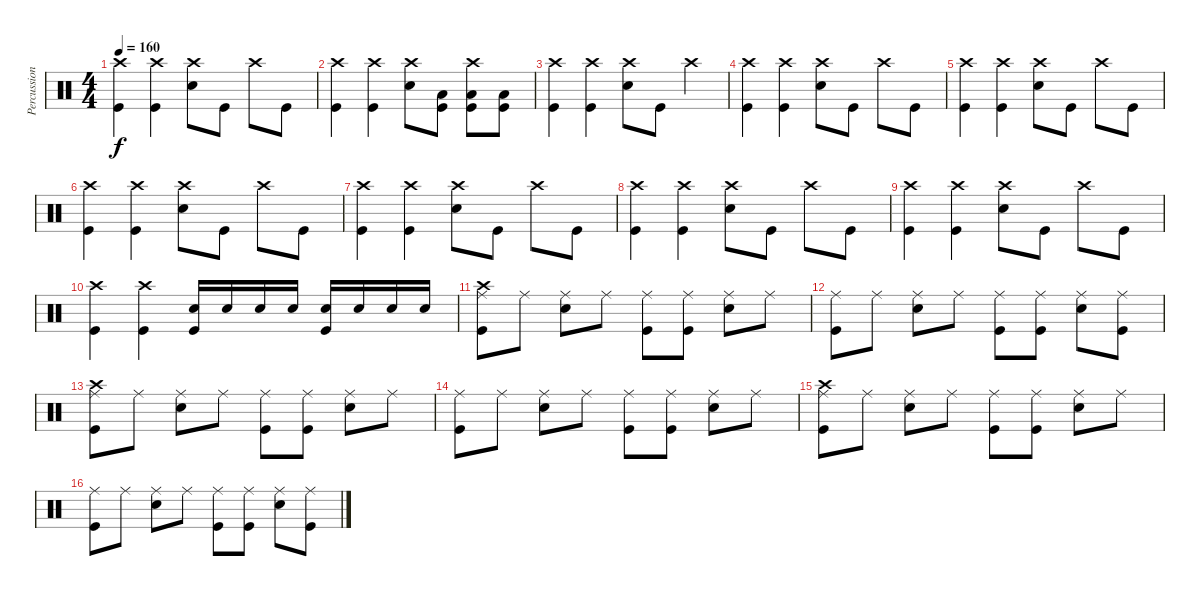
\track ("Percussions" "Percussion") {instrument percussion}
\staff {score}
\articulation defaults
\ts (4 4)
\tempo 160
\clef neutral
\ks c
("Crash high (hit)" "Kick (hit)").4{dy f} ("Crash high (hit)" "Kick (hit)").4 ("Crash high (hit)" "Snare (hit) 2").8 "Kick (hit)".8 "Crash high (hit)".8 "Kick (hit)".8 |
("Crash high (hit)" "Kick (hit)").4 ("Crash high (hit)" "Kick (hit)").4 ("Crash high (hit)" "Snare (hit) 2").8 ("Low Tom (hit)" "Kick (hit)").8 ("Crash high (hit)" "Low Tom (hit)" "Kick (hit)").8 ("Low Tom (hit)" "Kick (hit)").8 |
("Crash high (hit)" "Kick (hit)").4 ("Crash high (hit)" "Kick (hit)").4 ("Crash high (hit)" "Snare (hit) 2").8 "Kick (hit)".8 "Crash high (hit)".4 |
("Crash high (hit)" "Kick (hit)").4 ("Crash high (hit)" "Kick (hit)").4 ("Crash high (hit)" "Snare (hit) 2").8 "Kick (hit)".8 "Crash high (hit)".8 "Kick (hit)".8 |
("Crash high (hit)" "Kick (hit)").4 ("Crash high (hit)" "Kick (hit)").4 ("Crash high (hit)" "Snare (hit) 2").8 "Kick (hit)".8 "Crash high (hit)".8 "Kick (hit)".8 |
("Crash high (hit)" "Kick (hit)").4 ("Crash high (hit)" "Kick (hit)").4 ("Crash high (hit)" "Snare (hit) 2").8 "Kick (hit)".8 "Crash high (hit)".8 "Kick (hit)".8 |
("Crash high (hit)" "Kick (hit)").4 ("Crash high (hit)" "Kick (hit)").4 ("Crash high (hit)" "Snare (hit) 2").8 "Kick (hit)".8 "Crash high (hit)".8 "Kick (hit)".8 |
("Crash high (hit)" "Kick (hit)").4 ("Crash high (hit)" "Kick (hit)").4 ("Crash high (hit)" "Snare (hit) 2").8 "Kick (hit)".8 "Crash high (hit)".8 "Kick (hit)".8 |
("Crash high (hit)" "Kick (hit)").4 ("Crash high (hit)" "Kick (hit)").4 ("Crash high (hit)" "Snare (hit) 2").8 "Kick (hit)".8 "Crash high (hit)".8 "Kick (hit)".8 |
("Crash high (hit)" "Kick (hit)").4 ("Crash high (hit)" "Kick (hit)").4 ("Snare (hit) 2" "Kick (hit)").16 "Snare (hit) 2".16 "Snare (hit) 2".16 "Snare (hit) 2".16 ("Snare (hit) 2" "Kick (hit)").16 "Snare (hit) 2".16 "Snare (hit) 2".16 "Snare (hit) 2".16 |
("Ride (middle)" "Crash high (hit)" "Kick (hit)").8 "Ride (middle)".8 ("Ride (middle)" "Snare (hit) 2").8 "Ride (middle)".8 ("Ride (middle)" "Kick (hit)").8 ("Ride (middle)" "Kick (hit)").8 ("Ride (middle)" "Snare (hit) 2").8 "Ride (middle)".8 |
("Ride (middle)" "Kick (hit)").8 "Ride (middle)".8 ("Ride (middle)" "Snare (hit) 2").8 "Ride (middle)".8 ("Ride (middle)" "Kick (hit)").8 ("Ride (middle)" "Kick (hit)").8 ("Ride (middle)" "Snare (hit) 2").8 ("Ride (middle)" "Kick (hit)").8 |
("Ride (middle)" "Crash high (hit)" "Kick (hit)").8 "Ride (middle)".8 ("Ride (middle)" "Snare (hit) 2").8 "Ride (middle)".8 ("Ride (middle)" "Kick (hit)").8 ("Ride (middle)" "Kick (hit)").8 ("Ride (middle)" "Snare (hit) 2").8 "Ride (middle)".8 |
("Ride (middle)" "Kick (hit)").8 "Ride (middle)".8 ("Ride (middle)" "Snare (hit) 2").8 "Ride (middle)".8 ("Ride (middle)" "Kick (hit)").8 ("Ride (middle)" "Kick (hit)").8 ("Ride (middle)" "Snare (hit) 2").8 "Ride (middle)".8 |
("Ride (middle)" "Crash high (hit)" "Kick (hit)").8 "Ride (middle)".8 ("Ride (middle)" "Snare (hit) 2").8 "Ride (middle)".8 ("Ride (middle)" "Kick (hit)").8 ("Ride (middle)" "Kick (hit)").8 ("Ride (middle)" "Snare (hit) 2").8 "Ride (middle)".8 |
("Ride (middle)" "Kick (hit)").8 "Ride (middle)".8 ("Ride (middle)" "Snare (hit) 2").8 "Ride (middle)".8 ("Ride (middle)" "Kick (hit)").8 ("Ride (middle)" "Kick (hit)").8 ("Ride (middle)" "Snare (hit) 2").8 ("Ride (middle)" "Kick (hit)").8
